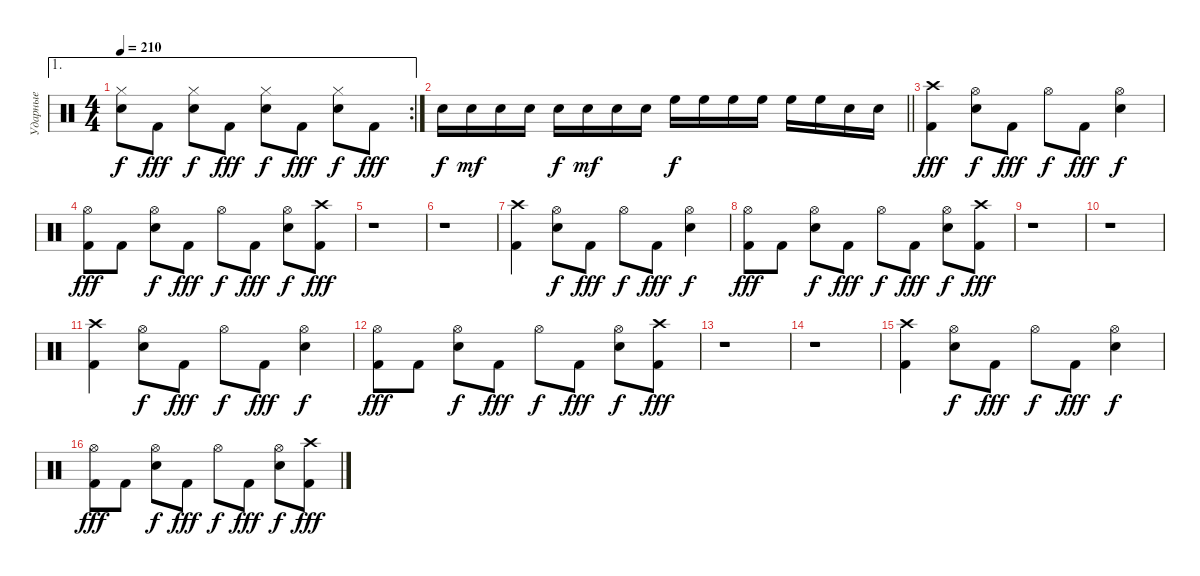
\track ("Ударные" "Ударные") {instrument percussion}
\staff {score}
\articulation defaults
\ae 1
\rc 2
\ts (4 4)
\tempo 210
\clef neutral
\ks c
("Snare (hit) 2" "Hi-Hat (closed)").8{dy f} "Kick (hit) 2".8{dy fff} ("Snare (hit) 2" "Hi-Hat (closed)").8{dy f} "Kick (hit) 2".8{dy fff} ("Snare (hit) 2" "Hi-Hat (closed)").8{dy f} "Kick (hit) 2".8{dy fff} ("Snare (hit) 2" "Hi-Hat (closed)").8{dy f} "Kick (hit) 2".8{dy fff} |
\barLineRight lightlight "Snare (hit) 2".16{dy f} "Snare (hit) 2".16{dy mf} "Snare (hit) 2".16 "Snare (hit) 2".16 "Snare (hit) 2".16{dy f} "Snare (hit) 2".16{dy mf} "Snare (hit) 2".16 "Snare (hit) 2".16 "High Floor Tom (hit)".16{dy f} "High Floor Tom (hit)".16 "High Floor Tom (hit)".16 "High Floor Tom (hit)".16 "High Floor Tom (hit)".16 "High Floor Tom (hit)".16 "Snare (hit) 2".16 "Snare (hit) 2".16
|
("Kick (hit) 2" "Crash high (hit)").4{dy fff} ("Snare (hit) 2" "Hi-Hat (open)").8{dy f} "Kick (hit) 2".8{dy fff} "Hi-Hat (open)".8{dy f} "Kick (hit) 2".8{dy fff} ("Snare (hit) 2" "Hi-Hat (open)").4{dy f} |
("Kick (hit) 2" "Hi-Hat (open)").8{dy fff} "Kick (hit) 2".8 ("Snare (hit) 2" "Hi-Hat (open)").8{dy f} "Kick (hit) 2".8{dy fff} "Hi-Hat (open)".8{dy f} "Kick (hit) 2".8{dy fff} ("Snare (hit) 2" "Hi-Hat (open)").8{dy f} ("Kick (hit) 2" "Crash high (hit)").8{dy fff} |
r.1 |
r.1 |
("Kick (hit) 2" "Crash high (hit)").4 ("Snare (hit) 2" "Hi-Hat (open)").8{dy f} "Kick (hit) 2".8{dy fff} "Hi-Hat (open)".8{dy f} "Kick (hit) 2".8{dy fff} ("Snare (hit) 2" "Hi-Hat (open)").4{dy f} |
("Kick (hit) 2" "Hi-Hat (open)").8{dy fff} "Kick (hit) 2".8 ("Snare (hit) 2" "Hi-Hat (open)").8{dy f} "Kick (hit) 2".8{dy fff} "Hi-Hat (open)".8{dy f} "Kick (hit) 2".8{dy fff} ("Snare (hit) 2" "Hi-Hat (open)").8{dy f} ("Kick (hit) 2" "Crash high (hit)").8{dy fff} |
r.1 |
r.1 |
("Kick (hit) 2" "Crash high (hit)").4 ("Snare (hit) 2" "Hi-Hat (open)").8{dy f} "Kick (hit) 2".8{dy fff} "Hi-Hat (open)".8{dy f} "Kick (hit) 2".8{dy fff} ("Snare (hit) 2" "Hi-Hat (open)").4{dy f} |
("Kick (hit) 2" "Hi-Hat (open)").8{dy fff} "Kick (hit) 2".8 ("Snare (hit) 2" "Hi-Hat (open)").8{dy f} "Kick (hit) 2".8{dy fff} "Hi-Hat (open)".8{dy f} "Kick (hit) 2".8{dy fff} ("Snare (hit) 2" "Hi-Hat (open)").8{dy f} ("Kick (hit) 2" "Crash high (hit)").8{dy fff} |
r.1 |
r.1 |
("Kick (hit) 2" "Crash high (hit)").4 ("Snare (hit) 2" "Hi-Hat (open)").8{dy f} "Kick (hit) 2".8{dy fff} "Hi-Hat (open)".8{dy f} "Kick (hit) 2".8{dy fff} ("Snare (hit) 2" "Hi-Hat (open)").4{dy f} |
("Kick (hit) 2" "Hi-Hat (open)").8{dy fff} "Kick (hit) 2".8 ("Snare (hit) 2" "Hi-Hat (open)").8{dy f} "Kick (hit) 2".8{dy fff} "Hi-Hat (open)".8{dy f} "Kick (hit) 2".8{dy fff} ("Snare (hit) 2" "Hi-Hat (open)").8{dy f} ("Kick (hit) 2" "Crash high (hit)").8{dy fff}
